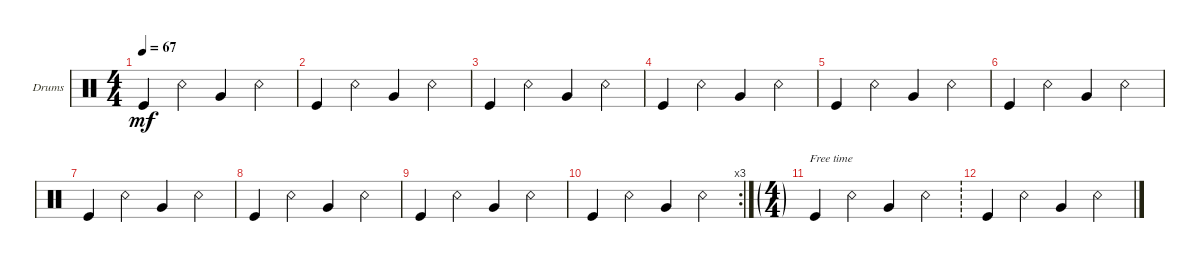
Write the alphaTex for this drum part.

\defaultSystemsLayout 4
\bracketExtendMode groupsimilarinstruments
\firstSystemTrackNameOrientation horizontal
\otherSystemsTrackNameOrientation horizontal
\track ("Drumkit" "Drums") {instrument percussion}
\staff {score}
\articulation defaults
\ts (4 4)
\tempo 67
\clef neutral
\ks c "Kick (hit)".4{dy mf} "Snare (rim shot)".4 "Very Low Tom (hit)".4 "Snare (rim shot)".4
|
"Kick (hit)".4 "Snare (rim shot)".4 "Very Low Tom (hit)".4 "Snare (rim shot)".4 |
"Kick (hit)".4 "Snare (rim shot)".4 "Very Low Tom (hit)".4 "Snare (rim shot)".4 |
"Kick (hit)".4 "Snare (rim shot)".4 "Very Low Tom (hit)".4 "Snare (rim shot)".4 |
"Kick (hit)".4 "Snare (rim shot)".4 "Very Low Tom (hit)".4 "Snare (rim shot)".4 |
"Kick (hit)".4 "Snare (rim shot)".4 "Very Low Tom (hit)".4 "Snare (rim shot)".4 |
"Kick (hit)".4 "Snare (rim shot)".4 "Very Low Tom (hit)".4 "Snare (rim shot)".4 |
"Kick (hit)".4 "Snare (rim shot)".4 "Very Low Tom (hit)".4 "Snare (rim shot)".4 |
"Kick (hit)".4 "Snare (rim shot)".4 "Very Low Tom (hit)".4 "Snare (rim shot)".4 |
\rc 3 "Kick (hit)".4 "Snare (rim shot)".4 "Very Low Tom (hit)".4 "Snare (rim shot)".4
|
\ft
\scale
0.259226 "Kick (hit)".4 "Snare (rim shot)".4 "Very Low Tom (hit)".4 "Snare (rim shot)".4 |
\scale
0.216022 "Kick (hit)".4 "Snare (rim shot)".4 "Very Low Tom (hit)".4 "Snare (rim shot)".4
